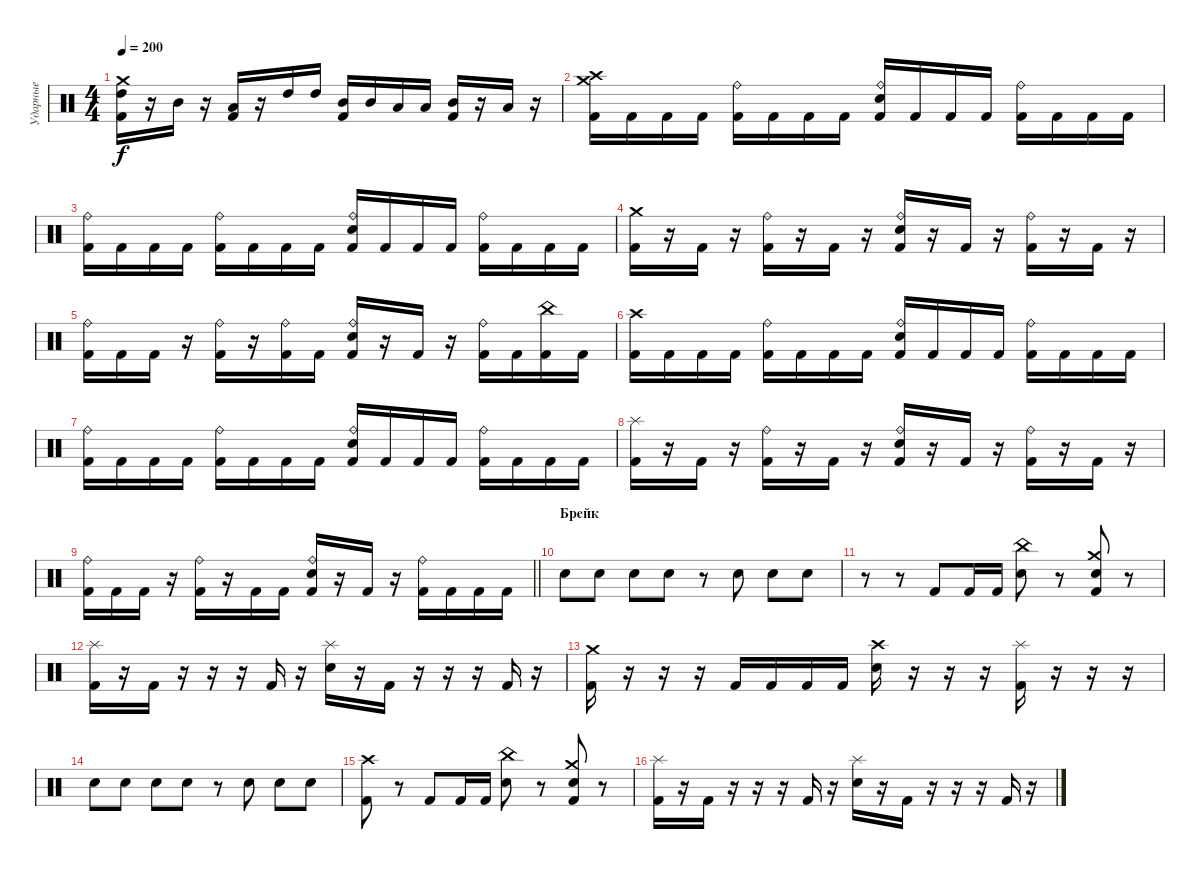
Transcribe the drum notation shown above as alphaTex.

\track ("Ударные" "Ударные") {instrument percussion}
\staff {score}
\articulation defaults
\ts (4 4)
\tempo 200
\clef neutral
\ks c
("Kick (hit) 2" "High Tom (hit)" "Crash medium (hit)").16{dy f} r.16 "Mid Tom (hit)".16 r.16 ("Kick (hit) 2" "Low Tom (hit)").16 r.16 "High Tom (hit)".16 "High Tom (hit)".16 ("Kick (hit) 2" "Mid Tom (hit)").16 "Mid Tom (hit)".16 "Low Tom (hit)".16 "Low Tom (hit)".16 ("Kick (hit) 2" "Mid Tom (hit)").16 r.16 "Low Tom (hit)".16 r.16 |
("Kick (hit) 2" "Crash high (hit)" "Crash medium (hit)").16 "Kick (hit) 2".16 "Kick (hit) 2".16 "Kick (hit) 2".16 ("Kick (hit) 2" "Ride (bell)").16 "Kick (hit) 2".16 "Kick (hit) 2".16 "Kick (hit) 2".16 ("Kick (hit) 2" "Electric Snare (hit)" "Ride (bell)").16 "Kick (hit) 2".16 "Kick (hit) 2".16 "Kick (hit) 2".16 ("Kick (hit) 2" "Ride (bell)").16 "Kick (hit) 2".16 "Kick (hit) 2".16 "Kick (hit) 2".16 |
("Kick (hit) 2" "Ride (bell)").16 "Kick (hit) 2".16 "Kick (hit) 2".16 "Kick (hit) 2".16 ("Kick (hit) 2" "Ride (bell)").16 "Kick (hit) 2".16 "Kick (hit) 2".16 "Kick (hit) 2".16 ("Kick (hit) 2" "Electric Snare (hit)" "Ride (bell)").16 "Kick (hit) 2".16 "Kick (hit) 2".16 "Kick (hit) 2".16 ("Kick (hit) 2" "Ride (bell)").16 "Kick (hit) 2".16 "Kick (hit) 2".16 "Kick (hit) 2".16 |
("Kick (hit) 2" "Crash medium (hit)").16 r.16 "Kick (hit) 2".16 r.16 ("Kick (hit) 2" "Ride (bell)").16 r.16 "Kick (hit) 2".16 r.16 ("Kick (hit) 2" "Electric Snare (hit)" "Ride (bell)").16 r.16 "Kick (hit) 2".16 r.16 ("Kick (hit) 2" "Ride (bell)").16 r.16 "Kick (hit) 2".16 r.16 |
("Kick (hit) 2" "Ride (bell)").16 "Kick (hit) 2".16 "Kick (hit) 2".16 r.16 ("Kick (hit) 2" "Ride (bell)").16 r.16 ("Kick (hit) 2" "Ride (bell)").16 "Kick (hit) 2".16 ("Kick (hit) 2" "Electric Snare (hit)" "Ride (bell)").16 r.16 "Kick (hit) 2".16 r.16 ("Kick (hit) 2" "Ride (bell)").16 "Kick (hit) 2".16 ("Kick (hit) 2" "China (hit)").16 "Kick (hit) 2".16 |
("Kick (hit) 2" "Crash high (hit)").16 "Kick (hit) 2".16 "Kick (hit) 2".16 "Kick (hit) 2".16 ("Kick (hit) 2" "Ride (bell)").16 "Kick (hit) 2".16 "Kick (hit) 2".16 "Kick (hit) 2".16 ("Kick (hit) 2" "Electric Snare (hit)" "Ride (bell)").16 "Kick (hit) 2".16 "Kick (hit) 2".16 "Kick (hit) 2".16 ("Kick (hit) 2" "Ride (bell)").16 "Kick (hit) 2".16 "Kick (hit) 2".16 "Kick (hit) 2".16 |
("Kick (hit) 2" "Ride (bell)").16 "Kick (hit) 2".16 "Kick (hit) 2".16 "Kick (hit) 2".16 ("Kick (hit) 2" "Ride (bell)").16 "Kick (hit) 2".16 "Kick (hit) 2".16 "Kick (hit) 2".16 ("Kick (hit) 2" "Electric Snare (hit)" "Ride (bell)").16 "Kick (hit) 2".16 "Kick (hit) 2".16 "Kick (hit) 2".16 ("Kick (hit) 2" "Ride (bell)").16 "Kick (hit) 2".16 "Kick (hit) 2".16 "Kick (hit) 2".16 |
("Kick (hit) 2" "Splash (hit)").16 r.16 "Kick (hit) 2".16 r.16 ("Kick (hit) 2" "Ride (bell)").16 r.16 "Kick (hit) 2".16 r.16 ("Kick (hit) 2" "Electric Snare (hit)" "Ride (bell)").16 r.16 "Kick (hit) 2".16 r.16 ("Kick (hit) 2" "Ride (bell)").16 r.16 "Kick (hit) 2".16 r.16 |
\barLineRight lightlight
("Kick (hit) 2" "Ride (bell)").16 "Kick (hit) 2".16 "Kick (hit) 2".16 r.16 ("Kick (hit) 2" "Ride (bell)").16 r.16 "Kick (hit) 2".16 "Kick (hit) 2".16 ("Kick (hit) 2" "Electric Snare (hit)" "Ride (bell)").16 r.16 "Kick (hit) 2".16 r.16 ("Kick (hit) 2" "Ride (bell)").16 "Kick (hit) 2".16 "Kick (hit) 2".16 "Kick (hit) 2".16 |
\section ("" "Брейк")
"Electric Snare (hit)".8 "Electric Snare (hit)".8 "Electric Snare (hit)".8 "Electric Snare (hit)".8 r.8 "Electric Snare (hit)".8 "Electric Snare (hit)".8 "Electric Snare (hit)".8 |
r.8 r.8 "Kick (hit) 2".8 "Kick (hit) 2".16 "Kick (hit) 2".16 ("Electric Snare (hit)" "China (hit)").8 r.8 ("Kick (hit) 2" "Electric Snare (hit)" "Crash medium (hit)").8 r.8 |
("Kick (hit) 2" "Splash (hit)").16 r.16 "Kick (hit) 2".16 r.16 r.16 r.16 "Kick (hit) 2".16 r.16 ("Electric Snare (hit)" "Splash (hit)").16 r.16 "Kick (hit) 2".16 r.16 r.16 r.16 "Kick (hit) 2".16 r.16 |
("Kick (hit) 2" "Crash medium (hit)").16 r.16 r.16 r.16 "Kick (hit) 2".16 "Kick (hit) 2".16 "Kick (hit) 2".16 "Kick (hit) 2".16 ("Electric Snare (hit)" "Crash high (hit)").16 r.16 r.16 r.16 ("Kick (hit) 2" "Splash (hit)").16 r.16 r.16 r.16 |
"Electric Snare (hit)".8 "Electric Snare (hit)".8 "Electric Snare (hit)".8 "Electric Snare (hit)".8 r.8 "Electric Snare (hit)".8 "Electric Snare (hit)".8 "Electric Snare (hit)".8 |
("Kick (hit) 2" "Crash high (hit)").8 r.8 "Kick (hit) 2".8 "Kick (hit) 2".16 "Kick (hit) 2".16 ("Electric Snare (hit)" "China (hit)").8 r.8 ("Kick (hit) 2" "Electric Snare (hit)" "Crash medium (hit)").8 r.8 |
("Kick (hit) 2" "Splash (hit)").16 r.16 "Kick (hit) 2".16 r.16 r.16 r.16 "Kick (hit) 2".16 r.16 ("Electric Snare (hit)" "Splash (hit)").16 r.16 "Kick (hit) 2".16 r.16 r.16 r.16 "Kick (hit) 2".16 r.16
